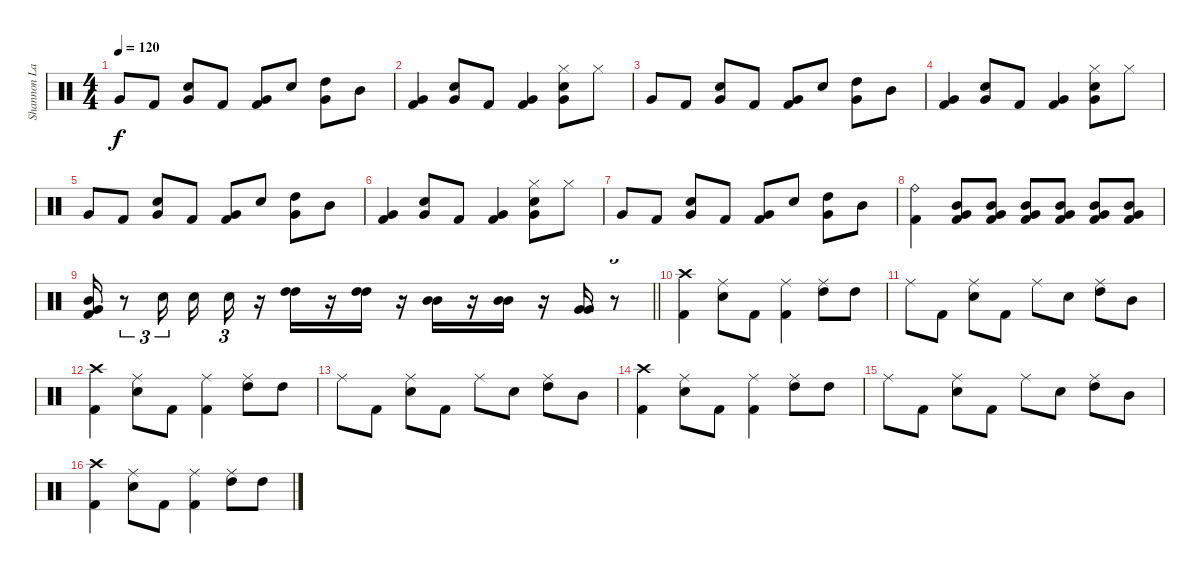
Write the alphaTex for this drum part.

\track ("Shannon Larkin [Drums]" "Shannon La") {instrument percussion}
\staff {score}
\articulation defaults
\ts (4 4)
\tempo 120
\clef neutral
\ks c "Very Low Tom (hit)".8{dy f} "Kick (hit) 2".8
("Very Low Tom (hit)" "Electric Snare (hit)").8 "Kick (hit) 2".8 ("Very Low Tom (hit)" "Kick (hit) 2").8 "Electric Snare (hit)".8 ("Very Low Tom (hit)" "High Tom (hit)").8 "Mid Tom (hit)".8 |
("Very Low Tom (hit)" "Kick (hit) 2").4 ("Very Low Tom (hit)" "Electric Snare (hit)").8 "Kick (hit) 2".8 ("Very Low Tom (hit)" "Kick (hit) 2").4 ("Hi-Hat (closed)" "Very Low Tom (hit)" "Electric Snare (hit)").8 "Hi-Hat (closed)".8 |
"Very Low Tom (hit)".8 "Kick (hit) 2".8 ("Very Low Tom (hit)" "Electric Snare (hit)").8 "Kick (hit) 2".8 ("Very Low Tom (hit)" "Kick (hit) 2").8 "Electric Snare (hit)".8 ("Very Low Tom (hit)" "High Tom (hit)").8 "Mid Tom (hit)".8 |
("Very Low Tom (hit)" "Kick (hit) 2").4 ("Very Low Tom (hit)" "Electric Snare (hit)").8 "Kick (hit) 2".8 ("Very Low Tom (hit)" "Kick (hit) 2").4 ("Hi-Hat (closed)" "Very Low Tom (hit)" "Electric Snare (hit)").8 "Hi-Hat (closed)".8 |
"Very Low Tom (hit)".8 "Kick (hit) 2".8 ("Very Low Tom (hit)" "Electric Snare (hit)").8 "Kick (hit) 2".8 ("Very Low Tom (hit)" "Kick (hit) 2").8 "Electric Snare (hit)".8 ("Very Low Tom (hit)" "High Tom (hit)").8 "Mid Tom (hit)".8 |
("Very Low Tom (hit)" "Kick (hit) 2").4 ("Very Low Tom (hit)" "Electric Snare (hit)").8 "Kick (hit) 2".8 ("Very Low Tom (hit)" "Kick (hit) 2").4 ("Hi-Hat (closed)" "Very Low Tom (hit)" "Electric Snare (hit)").8 "Hi-Hat (closed)".8 |
"Very Low Tom (hit)".8 "Kick (hit) 2".8 ("Very Low Tom (hit)" "Electric Snare (hit)").8 "Kick (hit) 2".8 ("Very Low Tom (hit)" "Kick (hit) 2").8 "Electric Snare (hit)".8 ("Very Low Tom (hit)" "High Tom (hit)").8 "Mid Tom (hit)".8 |
("Ride (bell)" "Kick (hit) 2").4 ("Mid Tom (hit)" "Very Low Tom (hit)" "Kick (hit) 2").8 ("Mid Tom (hit)" "Very Low Tom (hit)" "Kick (hit) 2").8 ("Mid Tom (hit)" "Very Low Tom (hit)" "Kick (hit) 2").8 ("Mid Tom (hit)" "Very Low Tom (hit)" "Kick (hit) 2").8 ("Mid Tom (hit)" "Very Low Tom (hit)" "Kick (hit) 2").8 ("Mid Tom (hit)" "Very Low Tom (hit)" "Kick (hit) 2").8 |
\barLineRight lightlight
("Mid Tom (hit)" "Very Low Tom (hit)" "Kick (hit) 2").16 r.8{tu (3 2)} "Electric Snare (hit)".16{tu (3 2)} "Electric Snare (hit)".16 "Electric Snare (hit)".16{tu (3 2)} r.16 ("High Tom (hit)" "High Tom (hit)").16 r.16 ("High Tom (hit)" "High Tom (hit)").16 r.16 ("Mid Tom (hit)" "Mid Tom (hit)").16 r.16 ("Mid Tom (hit)" "Mid Tom (hit)").16 r.16 ("Very Low Tom (hit)" "Very Low Tom (hit)").16 r.8{tu (3 2)} |
("Crash high (hit)" "Kick (hit) 2").4 ("Ride (middle)" "Electric Snare (hit)").8 "Kick (hit) 2".8 ("Ride (middle)" "Kick (hit) 2").4 ("Ride (middle)" "High Tom (hit)").8 "High Tom (hit)".8 |
"Ride (middle)".8 "Kick (hit) 2".8 ("Ride (middle)" "Electric Snare (hit)").8 "Kick (hit) 2".8 "Ride (middle)".8 "Electric Snare (hit)".8 ("Ride (middle)" "High Tom (hit)").8 "Mid Tom (hit)".8 |
("Crash high (hit)" "Kick (hit) 2").4 ("Ride (middle)" "Electric Snare (hit)").8 "Kick (hit) 2".8 ("Ride (middle)" "Kick (hit) 2").4 ("Ride (middle)" "High Tom (hit)").8 "High Tom (hit)".8 |
"Ride (middle)".8 "Kick (hit) 2".8 ("Ride (middle)" "Electric Snare (hit)").8 "Kick (hit) 2".8 "Ride (middle)".8 "Electric Snare (hit)".8 ("Ride (middle)" "High Tom (hit)").8 "Mid Tom (hit)".8 |
("Crash high (hit)" "Kick (hit) 2").4 ("Ride (middle)" "Electric Snare (hit)").8 "Kick (hit) 2".8 ("Ride (middle)" "Kick (hit) 2").4 ("Ride (middle)" "High Tom (hit)").8 "High Tom (hit)".8 |
"Ride (middle)".8 "Kick (hit) 2".8 ("Ride (middle)" "Electric Snare (hit)").8 "Kick (hit) 2".8 "Ride (middle)".8 "Electric Snare (hit)".8 ("Ride (middle)" "High Tom (hit)").8 "Mid Tom (hit)".8 |
("Crash high (hit)" "Kick (hit) 2").4 ("Ride (middle)" "Electric Snare (hit)").8 "Kick (hit) 2".8 ("Ride (middle)" "Kick (hit) 2").4 ("Ride (middle)" "High Tom (hit)").8 "High Tom (hit)".8
